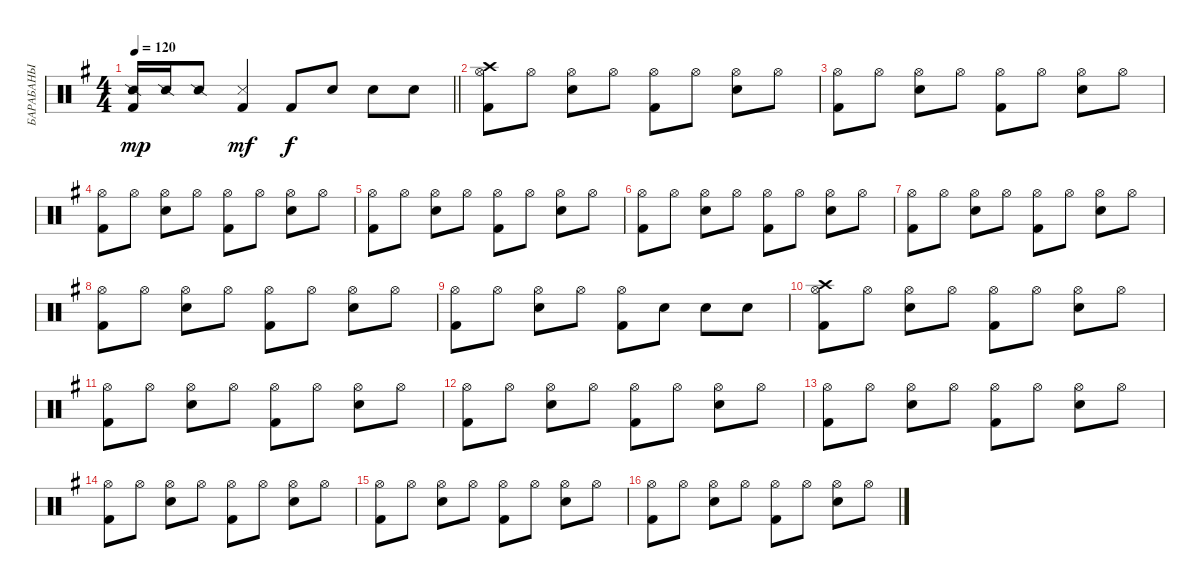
\track ("БАРАБАНЫ" "БАРАБАНЫ") {instrument percussion}
\staff {score}
\articulation defaults
\ts (4 4)
\tempo 120
\clef neutral
\barLineRight lightlight
\ks g
("Snare (side stick) 2" "Kick (hit) 2").16{dy mp} "Snare (side stick) 2".16 "Snare (side stick) 2".8 ("Snare (side stick) 3" "Kick (hit) 2").4{dy mf} "Kick (hit) 2".8{dy f} "Electric Snare (hit)".8 "Electric Snare (hit)".8 "Electric Snare (hit)".8 |
("Hi-Hat (open)" "Crash high (hit)" "Kick (hit) 2").8 "Hi-Hat (open)".8 ("Hi-Hat (open)" "Electric Snare (hit)").8 "Hi-Hat (open)".8 ("Hi-Hat (open)" "Kick (hit) 2").8 "Hi-Hat (open)".8 ("Hi-Hat (open)" "Electric Snare (hit)").8 "Hi-Hat (open)".8 |
("Hi-Hat (open)" "Kick (hit) 2").8 "Hi-Hat (open)".8 ("Hi-Hat (open)" "Electric Snare (hit)").8 "Hi-Hat (open)".8 ("Hi-Hat (open)" "Kick (hit) 2").8 "Hi-Hat (open)".8 ("Hi-Hat (open)" "Electric Snare (hit)").8 "Hi-Hat (open)".8 |
("Hi-Hat (open)" "Kick (hit) 2").8 "Hi-Hat (open)".8 ("Hi-Hat (open)" "Electric Snare (hit)").8 "Hi-Hat (open)".8 ("Hi-Hat (open)" "Kick (hit) 2").8 "Hi-Hat (open)".8 ("Hi-Hat (open)" "Electric Snare (hit)").8 "Hi-Hat (open)".8 |
("Hi-Hat (open)" "Kick (hit) 2").8 "Hi-Hat (open)".8 ("Hi-Hat (open)" "Electric Snare (hit)").8 "Hi-Hat (open)".8 ("Hi-Hat (open)" "Kick (hit) 2").8 "Hi-Hat (open)".8 ("Hi-Hat (open)" "Electric Snare (hit)").8 "Hi-Hat (open)".8 |
("Hi-Hat (open)" "Kick (hit) 2").8 "Hi-Hat (open)".8 ("Hi-Hat (open)" "Electric Snare (hit)").8 "Hi-Hat (open)".8 ("Hi-Hat (open)" "Kick (hit) 2").8 "Hi-Hat (open)".8 ("Hi-Hat (open)" "Electric Snare (hit)").8 "Hi-Hat (open)".8 |
("Hi-Hat (open)" "Kick (hit) 2").8 "Hi-Hat (open)".8 ("Hi-Hat (open)" "Electric Snare (hit)").8 "Hi-Hat (open)".8 ("Hi-Hat (open)" "Kick (hit) 2").8 "Hi-Hat (open)".8 ("Hi-Hat (open)" "Electric Snare (hit)").8 "Hi-Hat (open)".8 |
("Hi-Hat (open)" "Kick (hit) 2").8 "Hi-Hat (open)".8 ("Hi-Hat (open)" "Electric Snare (hit)").8 "Hi-Hat (open)".8 ("Hi-Hat (open)" "Kick (hit) 2").8 "Hi-Hat (open)".8 ("Hi-Hat (open)" "Electric Snare (hit)").8 "Hi-Hat (open)".8 |
("Hi-Hat (open)" "Kick (hit) 2").8 "Hi-Hat (open)".8 ("Hi-Hat (open)" "Electric Snare (hit)").8 "Hi-Hat (open)".8 ("Hi-Hat (open)" "Kick (hit) 2").8 "Electric Snare (hit)".8 "Electric Snare (hit)".8 "Electric Snare (hit)".8 |
("Hi-Hat (open)" "Crash high (hit)" "Kick (hit) 2").8 "Hi-Hat (open)".8 ("Hi-Hat (open)" "Electric Snare (hit)").8 "Hi-Hat (open)".8 ("Hi-Hat (open)" "Kick (hit) 2").8 "Hi-Hat (open)".8 ("Hi-Hat (open)" "Electric Snare (hit)").8 "Hi-Hat (open)".8 |
("Hi-Hat (open)" "Kick (hit) 2").8 "Hi-Hat (open)".8 ("Hi-Hat (open)" "Electric Snare (hit)").8 "Hi-Hat (open)".8 ("Hi-Hat (open)" "Kick (hit) 2").8 "Hi-Hat (open)".8 ("Hi-Hat (open)" "Electric Snare (hit)").8 "Hi-Hat (open)".8 |
("Hi-Hat (open)" "Kick (hit) 2").8 "Hi-Hat (open)".8 ("Hi-Hat (open)" "Electric Snare (hit)").8 "Hi-Hat (open)".8 ("Hi-Hat (open)" "Kick (hit) 2").8 "Hi-Hat (open)".8 ("Hi-Hat (open)" "Electric Snare (hit)").8 "Hi-Hat (open)".8 |
("Hi-Hat (open)" "Kick (hit) 2").8 "Hi-Hat (open)".8 ("Hi-Hat (open)" "Electric Snare (hit)").8 "Hi-Hat (open)".8 ("Hi-Hat (open)" "Kick (hit) 2").8 "Hi-Hat (open)".8 ("Hi-Hat (open)" "Electric Snare (hit)").8 "Hi-Hat (open)".8 |
("Hi-Hat (open)" "Kick (hit) 2").8 "Hi-Hat (open)".8 ("Hi-Hat (open)" "Electric Snare (hit)").8 "Hi-Hat (open)".8 ("Hi-Hat (open)" "Kick (hit) 2").8 "Hi-Hat (open)".8 ("Hi-Hat (open)" "Electric Snare (hit)").8 "Hi-Hat (open)".8 |
("Hi-Hat (open)" "Kick (hit) 2").8 "Hi-Hat (open)".8 ("Hi-Hat (open)" "Electric Snare (hit)").8 "Hi-Hat (open)".8 ("Hi-Hat (open)" "Kick (hit) 2").8 "Hi-Hat (open)".8 ("Hi-Hat (open)" "Electric Snare (hit)").8 "Hi-Hat (open)".8 |
("Hi-Hat (open)" "Kick (hit) 2").8 "Hi-Hat (open)".8 ("Hi-Hat (open)" "Electric Snare (hit)").8 "Hi-Hat (open)".8 ("Hi-Hat (open)" "Kick (hit) 2").8 "Hi-Hat (open)".8 ("Hi-Hat (open)" "Electric Snare (hit)").8 "Hi-Hat (open)".8
